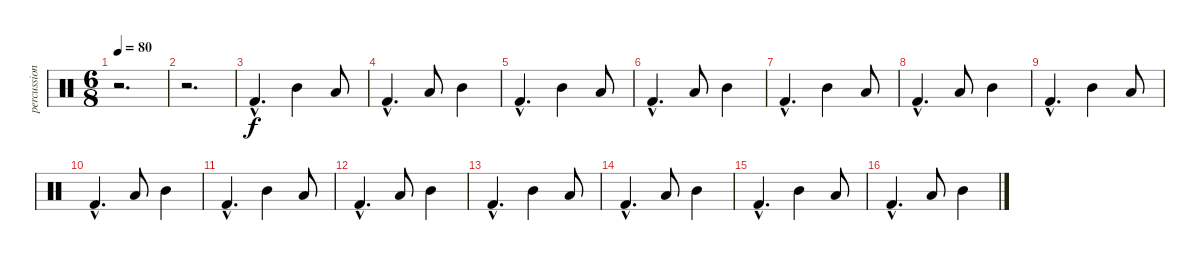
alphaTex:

\track ("percussions" "percussion") {instrument percussion}
\staff {score}
\articulation defaults
\ts (6 8)
\tempo 80
\clef neutral
\ks c
r.2{d dy f} |
r.2{d} |
"Kick (hit) 2"{hac}.4{d} "Mid Tom (hit)".4 "Low Tom (hit)".8 |
"Kick (hit) 2"{hac}.4{d} "Low Tom (hit)".8 "Mid Tom (hit)".4 |
"Kick (hit) 2"{hac}.4{d} "Mid Tom (hit)".4 "Low Tom (hit)".8 |
"Kick (hit) 2"{hac}.4{d} "Low Tom (hit)".8 "Mid Tom (hit)".4 |
"Kick (hit) 2"{hac}.4{d} "Mid Tom (hit)".4 "Low Tom (hit)".8 |
"Kick (hit) 2"{hac}.4{d} "Low Tom (hit)".8 "Mid Tom (hit)".4 |
"Kick (hit) 2"{hac}.4{d} "Mid Tom (hit)".4 "Low Tom (hit)".8 |
"Kick (hit) 2"{hac}.4{d} "Low Tom (hit)".8 "Mid Tom (hit)".4 |
"Kick (hit) 2"{hac}.4{d} "Mid Tom (hit)".4 "Low Tom (hit)".8 |
"Kick (hit) 2"{hac}.4{d} "Low Tom (hit)".8 "Mid Tom (hit)".4 |
"Kick (hit) 2"{hac}.4{d} "Mid Tom (hit)".4 "Low Tom (hit)".8 |
"Kick (hit) 2"{hac}.4{d} "Low Tom (hit)".8 "Mid Tom (hit)".4 |
"Kick (hit) 2"{hac}.4{d} "Mid Tom (hit)".4 "Low Tom (hit)".8 |
"Kick (hit) 2"{hac}.4{d} "Low Tom (hit)".8 "Mid Tom (hit)".4
